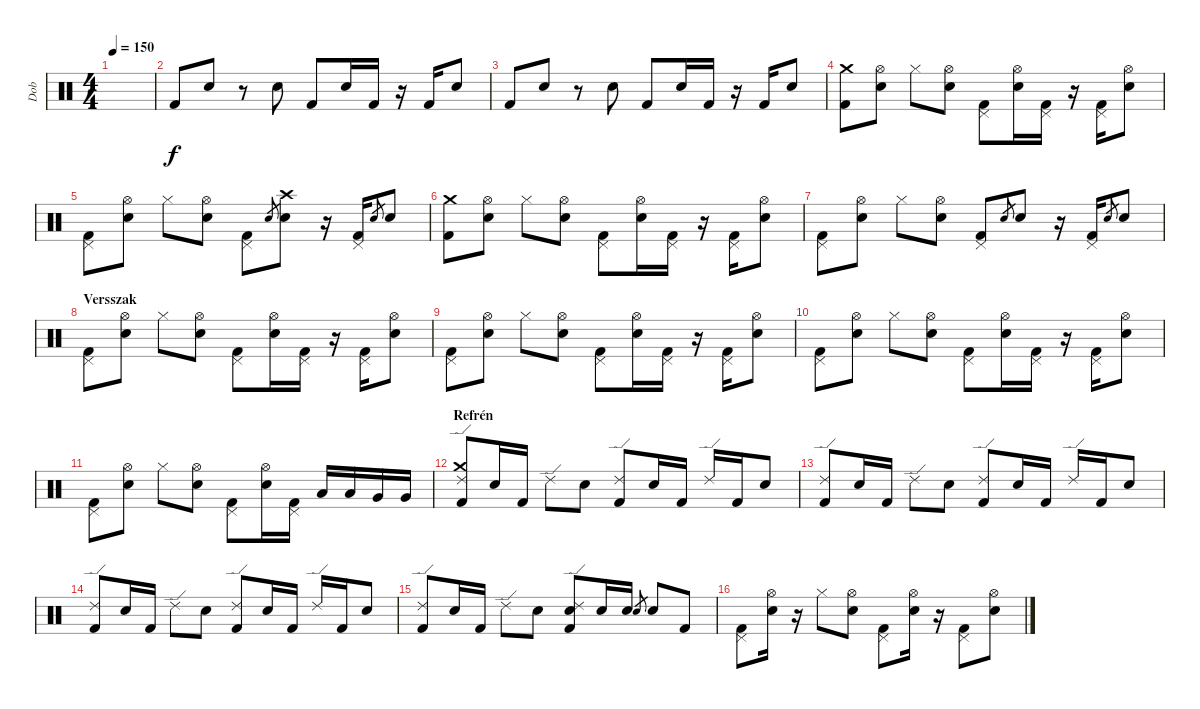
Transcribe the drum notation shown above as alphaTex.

\track ("Dob" "Dob") {instrument percussion}
\staff {score}
\articulation defaults
\ts (4 4)
\tempo 150
\clef neutral
\ks c
|
"Kick (hit) 2".8 "Snare (hit) 2".8 r.8 "Snare (hit) 2".8 "Kick (hit) 2".8 "Snare (hit) 2".16 "Kick (hit) 2".16 r.16 "Kick (hit) 2".16 "Snare (hit) 2".8 |
"Kick (hit) 2".8 "Snare (hit) 2".8 r.8 "Snare (hit) 2".8 "Kick (hit) 2".8 "Snare (hit) 2".16 "Kick (hit) 2".16 r.16 "Kick (hit) 2".16 "Snare (hit) 2".8 |
("Kick (hit) 2" "Crash medium (hit)").8 ("Snare (hit) 2" "Hi-Hat (open)").8 "Hi-Hat (closed)".8 ("Snare (hit) 2" "Hi-Hat (open)").8 ("Kick (hit) 2" "Pedal Hi-Hat (hit)").8 ("Snare (hit) 2" "Hi-Hat (open)").16 ("Kick (hit) 2" "Pedal Hi-Hat (hit)").16 r.16 ("Kick (hit) 2" "Pedal Hi-Hat (hit)").16 ("Snare (hit) 2" "Hi-Hat (open)").8 |
("Kick (hit) 2" "Pedal Hi-Hat (hit)").8 ("Snare (hit) 2" "Hi-Hat (open)").8 "Hi-Hat (closed)".8 ("Snare (hit) 2" "Hi-Hat (open)").8 ("Kick (hit) 2" "Pedal Hi-Hat (hit)").8 "Snare (hit) 2".8{gr} ("Snare (hit) 2" "Crash high (hit)").8 r.16 ("Kick (hit) 2" "Pedal Hi-Hat (hit)").16 "Snare (hit) 2".8{gr} "Snare (hit) 2".8 |
("Kick (hit) 2" "Crash medium (hit)").8 ("Snare (hit) 2" "Hi-Hat (open)").8 "Hi-Hat (closed)".8 ("Snare (hit) 2" "Hi-Hat (open)").8 ("Kick (hit) 2" "Pedal Hi-Hat (hit)").8 ("Snare (hit) 2" "Hi-Hat (open)").16 ("Kick (hit) 2" "Pedal Hi-Hat (hit)").16 r.16 ("Kick (hit) 2" "Pedal Hi-Hat (hit)").16 ("Snare (hit) 2" "Hi-Hat (open)").8 |
("Kick (hit) 2" "Pedal Hi-Hat (hit)").8 ("Snare (hit) 2" "Hi-Hat (open)").8 "Hi-Hat (closed)".8 ("Snare (hit) 2" "Hi-Hat (open)").8 ("Kick (hit) 2" "Pedal Hi-Hat (hit)").8 "Snare (hit) 2".8{gr} "Snare (hit) 2".8 r.16 ("Kick (hit) 2" "Pedal Hi-Hat (hit)").16 "Snare (hit) 2".8{gr} "Snare (hit) 2".8 |
\section ("" "Versszak")
("Kick (hit) 2" "Pedal Hi-Hat (hit)").8 ("Snare (hit) 2" "Hi-Hat (open)").8 "Hi-Hat (closed)".8 ("Snare (hit) 2" "Hi-Hat (open)").8 ("Kick (hit) 2" "Pedal Hi-Hat (hit)").8 ("Snare (hit) 2" "Hi-Hat (open)").16 ("Kick (hit) 2" "Pedal Hi-Hat (hit)").16 r.16 ("Kick (hit) 2" "Pedal Hi-Hat (hit)").16 ("Snare (hit) 2" "Hi-Hat (open)").8 |
("Kick (hit) 2" "Pedal Hi-Hat (hit)").8 ("Snare (hit) 2" "Hi-Hat (open)").8 "Hi-Hat (closed)".8 ("Snare (hit) 2" "Hi-Hat (open)").8 ("Kick (hit) 2" "Pedal Hi-Hat (hit)").8 ("Snare (hit) 2" "Hi-Hat (open)").16 ("Kick (hit) 2" "Pedal Hi-Hat (hit)").16 r.16 ("Kick (hit) 2" "Pedal Hi-Hat (hit)").16 ("Snare (hit) 2" "Hi-Hat (open)").8 |
("Kick (hit) 2" "Pedal Hi-Hat (hit)").8 ("Snare (hit) 2" "Hi-Hat (open)").8 "Hi-Hat (closed)".8 ("Snare (hit) 2" "Hi-Hat (open)").8 ("Kick (hit) 2" "Pedal Hi-Hat (hit)").8 ("Snare (hit) 2" "Hi-Hat (open)").16 ("Kick (hit) 2" "Pedal Hi-Hat (hit)").16 r.16 ("Kick (hit) 2" "Pedal Hi-Hat (hit)").16 ("Snare (hit) 2" "Hi-Hat (open)").8 |
("Kick (hit) 2" "Pedal Hi-Hat (hit)").8 ("Snare (hit) 2" "Hi-Hat (open)").8 "Hi-Hat (closed)".8 ("Snare (hit) 2" "Hi-Hat (open)").8 ("Kick (hit) 2" "Pedal Hi-Hat (hit)").8 ("Snare (hit) 2" "Hi-Hat (open)").16 ("Kick (hit) 2" "Pedal Hi-Hat (hit)").16 "Low Tom (hit)".16 "Low Tom (hit)".16 "Very Low Tom (hit)".16 "Very Low Tom (hit)".16 |
\section ("" "Refrén")
("Kick (hit) 2" "Crash medium (hit)" "Ride (edge) 2").8 "Snare (hit) 2".16 "Kick (hit) 2".16 "Ride (edge) 2".8 "Snare (hit) 2".8 ("Kick (hit) 2" "Ride (edge) 2").8 "Snare (hit) 2".16 "Kick (hit) 2".16 "Ride (edge) 2".16 "Kick (hit) 2".16 "Snare (hit) 2".8 |
("Kick (hit) 2" "Ride (edge) 2").8 "Snare (hit) 2".16 "Kick (hit) 2".16 "Ride (edge) 2".8 "Snare (hit) 2".8 ("Kick (hit) 2" "Ride (edge) 2").8 "Snare (hit) 2".16 "Kick (hit) 2".16 "Ride (edge) 2".16 "Kick (hit) 2".16 "Snare (hit) 2".8 |
("Kick (hit) 2" "Ride (edge) 2").8 "Snare (hit) 2".16 "Kick (hit) 2".16 "Ride (edge) 2".8 "Snare (hit) 2".8 ("Kick (hit) 2" "Ride (edge) 2").8 "Snare (hit) 2".16 "Kick (hit) 2".16 "Ride (edge) 2".16 "Kick (hit) 2".16 "Snare (hit) 2".8 |
("Kick (hit) 2" "Ride (edge) 2").8 "Snare (hit) 2".16 "Kick (hit) 2".16 "Ride (edge) 2".8 "Snare (hit) 2".8 ("Kick (hit) 2" "Snare (hit) 2" "Ride (edge) 2").8 "Snare (hit) 2".16 "Snare (hit) 2".16 "Snare (hit) 2".8{gr} "Snare (hit) 2".8 "Kick (hit) 2".8 |
("Kick (hit) 2" "Pedal Hi-Hat (hit)").8 ("Snare (hit) 2" "Hi-Hat (open)").16 r.16 "Hi-Hat (closed)".8 ("Snare (hit) 2" "Hi-Hat (open)").8 ("Kick (hit) 2" "Pedal Hi-Hat (hit)").8 ("Snare (hit) 2" "Hi-Hat (open)").16 r.16 ("Kick (hit) 2" "Pedal Hi-Hat (hit)").8 ("Snare (hit) 2" "Hi-Hat (open)").8
